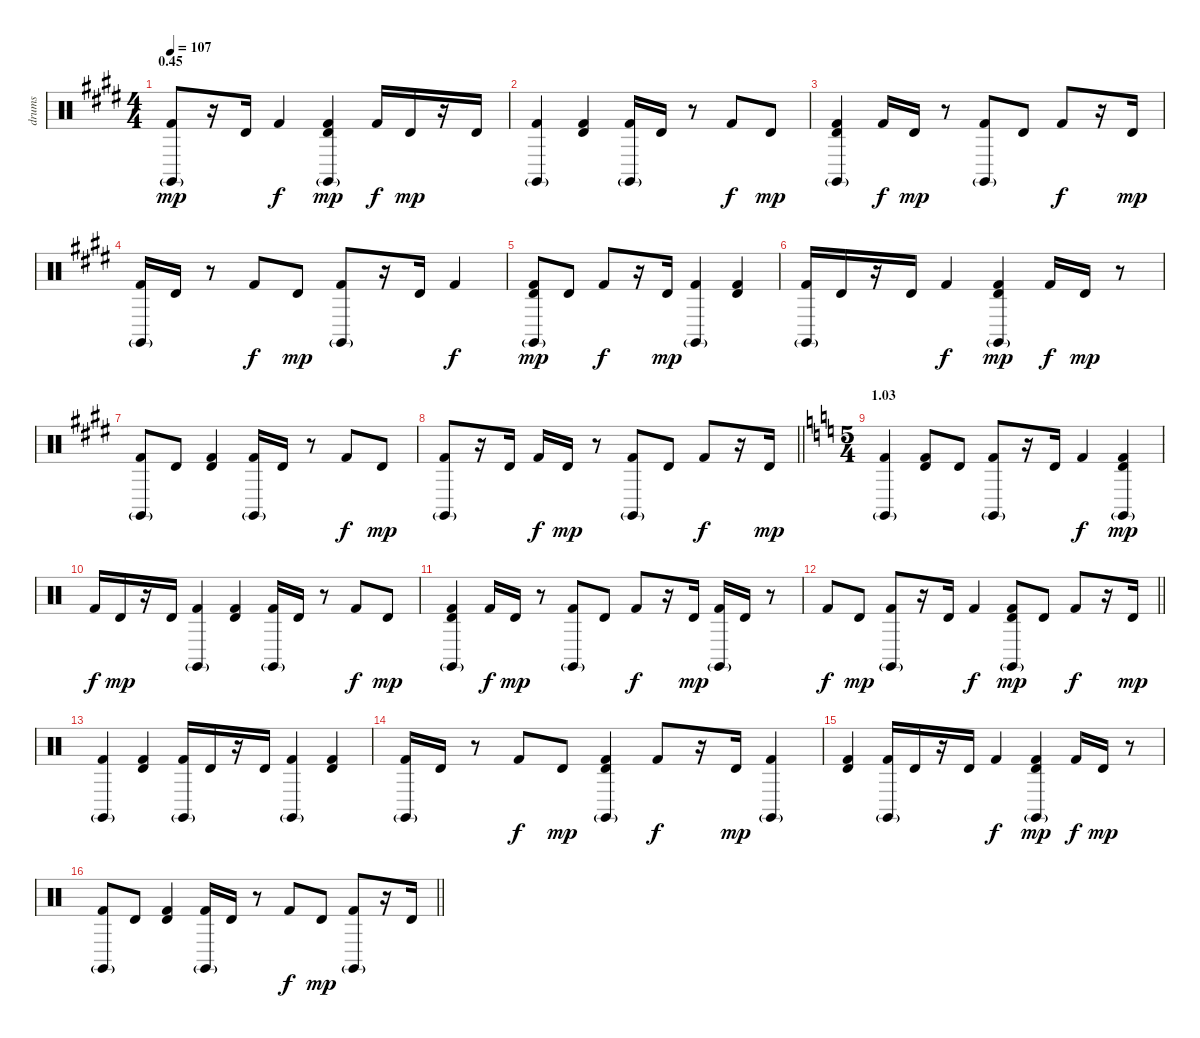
\track ("drums" "drums") {instrument percussion}
\staff {score}
\articulation defaults
\ts (4 4)
\section ("" "0.45")
\tempo 107
\clef neutral
\ks c#minor
("Claves (hit)"{g} "Kick (hit) 2").8{dy mp} r.16 "Timbale high (hit)".16 "Kick (hit) 2".4{dy f} ("Timbale high (hit)" "Claves (hit)"{g} "Kick (hit) 2").4{dy mp} "Kick (hit) 2".16{dy f} "Timbale high (hit)".16{dy mp} r.16 "Timbale high (hit)".16 |
("Claves (hit)"{g} "Kick (hit) 2").4 ("Timbale high (hit)" "Kick (hit) 2").4 ("Claves (hit)"{g} "Kick (hit) 2").16 "Timbale high (hit)".16 r.8 "Kick (hit) 2".8{dy f} "Timbale high (hit)".8{dy mp} |
("Timbale high (hit)" "Claves (hit)"{g} "Kick (hit) 2").4 "Kick (hit) 2".16{dy f} "Timbale high (hit)".16{dy mp} r.8 ("Claves (hit)"{g} "Kick (hit) 2").8 "Timbale high (hit)".8 "Kick (hit) 2".8{dy f} r.16 "Timbale high (hit)".16{dy mp} |
("Claves (hit)"{g} "Kick (hit) 2").16 "Timbale high (hit)".16 r.8 "Kick (hit) 2".8{dy f} "Timbale high (hit)".8{dy mp} ("Claves (hit)"{g} "Kick (hit) 2").8 r.16 "Timbale high (hit)".16 "Kick (hit) 2".4{dy f} |
("Timbale high (hit)" "Claves (hit)"{g} "Kick (hit) 2").8{dy mp} "Timbale high (hit)".8 "Kick (hit) 2".8{dy f} r.16 "Timbale high (hit)".16{dy mp} ("Claves (hit)"{g} "Kick (hit) 2").4 ("Timbale high (hit)" "Kick (hit) 2").4 |
("Claves (hit)"{g} "Kick (hit) 2").16 "Timbale high (hit)".16 r.16 "Timbale high (hit)".16 "Kick (hit) 2".4{dy f} ("Timbale high (hit)" "Claves (hit)"{g} "Kick (hit) 2").4{dy mp} "Kick (hit) 2".16{dy f} "Timbale high (hit)".16{dy mp} r.8 |
("Claves (hit)"{g} "Kick (hit) 2").8 "Timbale high (hit)".8 ("Timbale high (hit)" "Kick (hit) 2").4 ("Claves (hit)"{g} "Kick (hit) 2").16 "Timbale high (hit)".16 r.8 "Kick (hit) 2".8{dy f} "Timbale high (hit)".8{dy mp} |
\barLineRight lightlight
("Claves (hit)"{g} "Kick (hit) 2").8 r.16 "Timbale high (hit)".16 "Kick (hit) 2".16{dy f} "Timbale high (hit)".16{dy mp} r.8 ("Claves (hit)"{g} "Kick (hit) 2").8 "Timbale high (hit)".8 "Kick (hit) 2".8{dy f} r.16 "Timbale high (hit)".16{dy mp} |
\ts (5 4)
\section ("" "1.03")
\ks c
("Claves (hit)"{g} "Kick (hit) 2").4 ("Timbale high (hit)" "Kick (hit) 2").8 "Timbale high (hit)".8 ("Claves (hit)"{g} "Kick (hit) 2").8 r.16 "Timbale high (hit)".16 "Kick (hit) 2".4{dy f} ("Timbale high (hit)" "Claves (hit)"{g} "Kick (hit) 2").4{dy mp} |
"Kick (hit) 2".16{dy f} "Timbale high (hit)".16{dy mp} r.16 "Timbale high (hit)".16 ("Claves (hit)"{g} "Kick (hit) 2").4 ("Timbale high (hit)" "Kick (hit) 2").4 ("Claves (hit)"{g} "Kick (hit) 2").16 "Timbale high (hit)".16 r.8 "Kick (hit) 2".8{dy f} "Timbale high (hit)".8{dy mp} |
("Timbale high (hit)" "Claves (hit)"{g} "Kick (hit) 2").4 "Kick (hit) 2".16{dy f} "Timbale high (hit)".16{dy mp} r.8 ("Claves (hit)"{g} "Kick (hit) 2").8 "Timbale high (hit)".8 "Kick (hit) 2".8{dy f} r.16 "Timbale high (hit)".16{dy mp} ("Claves (hit)"{g} "Kick (hit) 2").16 "Timbale high (hit)".16 r.8 |
\barLineRight lightlight "Kick (hit) 2".8{dy f} "Timbale high (hit)".8{dy mp}
("Claves (hit)"{g} "Kick (hit) 2").8 r.16 "Timbale high (hit)".16 "Kick (hit) 2".4{dy f} ("Timbale high (hit)" "Claves (hit)"{g} "Kick (hit) 2").8{dy mp} "Timbale high (hit)".8 "Kick (hit) 2".8{dy f} r.16 "Timbale high (hit)".16{dy mp} |
("Claves (hit)"{g} "Kick (hit) 2").4 ("Timbale high (hit)" "Kick (hit) 2").4 ("Claves (hit)"{g} "Kick (hit) 2").16 "Timbale high (hit)".16 r.16 "Timbale high (hit)".16 ("Claves (hit)"{g} "Kick (hit) 2").4 ("Timbale high (hit)" "Kick (hit) 2").4 |
("Claves (hit)"{g} "Kick (hit) 2").16 "Timbale high (hit)".16 r.8 "Kick (hit) 2".8{dy f} "Timbale high (hit)".8{dy mp} ("Timbale high (hit)" "Claves (hit)"{g} "Kick (hit) 2").4 "Kick (hit) 2".8{dy f} r.16 "Timbale high (hit)".16{dy mp} ("Claves (hit)"{g} "Kick (hit) 2").4 |
("Timbale high (hit)" "Kick (hit) 2").4 ("Claves (hit)"{g} "Kick (hit) 2").16 "Timbale high (hit)".16 r.16 "Timbale high (hit)".16 "Kick (hit) 2".4{dy f} ("Timbale high (hit)" "Claves (hit)"{g} "Kick (hit) 2").4{dy mp} "Kick (hit) 2".16{dy f} "Timbale high (hit)".16{dy mp} r.8 |
\barLineRight lightlight
("Claves (hit)"{g} "Kick (hit) 2").8 "Timbale high (hit)".8 ("Timbale high (hit)" "Kick (hit) 2").4 ("Claves (hit)"{g} "Kick (hit) 2").16 "Timbale high (hit)".16 r.8 "Kick (hit) 2".8{dy f} "Timbale high (hit)".8{dy mp} ("Claves (hit)"{g} "Kick (hit) 2").8 r.16 "Timbale high (hit)".16
